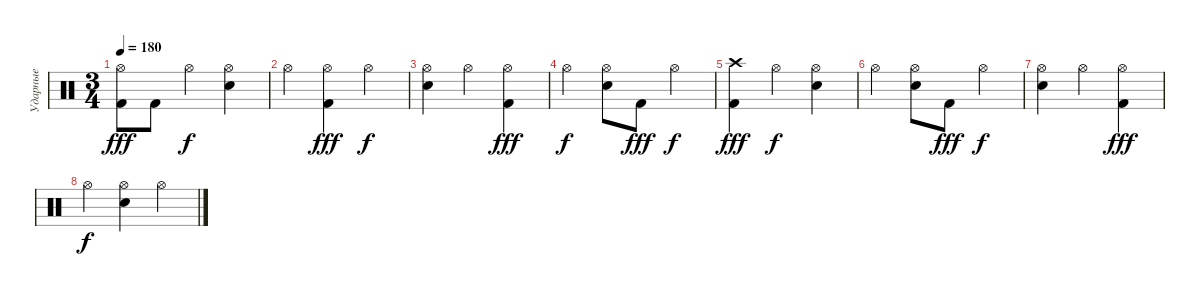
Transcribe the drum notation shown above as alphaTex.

\track ("Ударные" "Ударные") {instrument percussion}
\staff {score}
\articulation defaults
\ts (3 4)
\tempo 180
\clef neutral
\ks c
("Kick (hit) 2" "Hi-Hat (open)").8{dy fff} "Kick (hit) 2".8 "Hi-Hat (open)".4{dy f} ("Snare (hit) 2" "Hi-Hat (open)").4 |
"Hi-Hat (open)".4 ("Kick (hit) 2" "Hi-Hat (open)").4{dy fff} "Hi-Hat (open)".4{dy f} |
("Snare (hit) 2" "Hi-Hat (open)").4 "Hi-Hat (open)".4 ("Kick (hit) 2" "Hi-Hat (open)").4{dy fff} |
"Hi-Hat (open)".4{dy f} ("Snare (hit) 2" "Hi-Hat (open)").8 "Kick (hit) 2".8{dy fff} "Hi-Hat (open)".4{dy f} |
("Kick (hit) 2" "Crash high (hit)").4{dy fff} "Hi-Hat (open)".4{dy f} ("Snare (hit) 2" "Hi-Hat (open)").4 |
"Hi-Hat (open)".4 ("Snare (hit) 2" "Hi-Hat (open)").8 "Kick (hit) 2".8{dy fff} "Hi-Hat (open)".4{dy f} |
("Snare (hit) 2" "Hi-Hat (open)").4 "Hi-Hat (open)".4 ("Kick (hit) 2" "Hi-Hat (open)").4{dy fff} |
"Hi-Hat (open)".4{dy f} ("Snare (hit) 2" "Hi-Hat (open)").4 "Hi-Hat (open)".4
